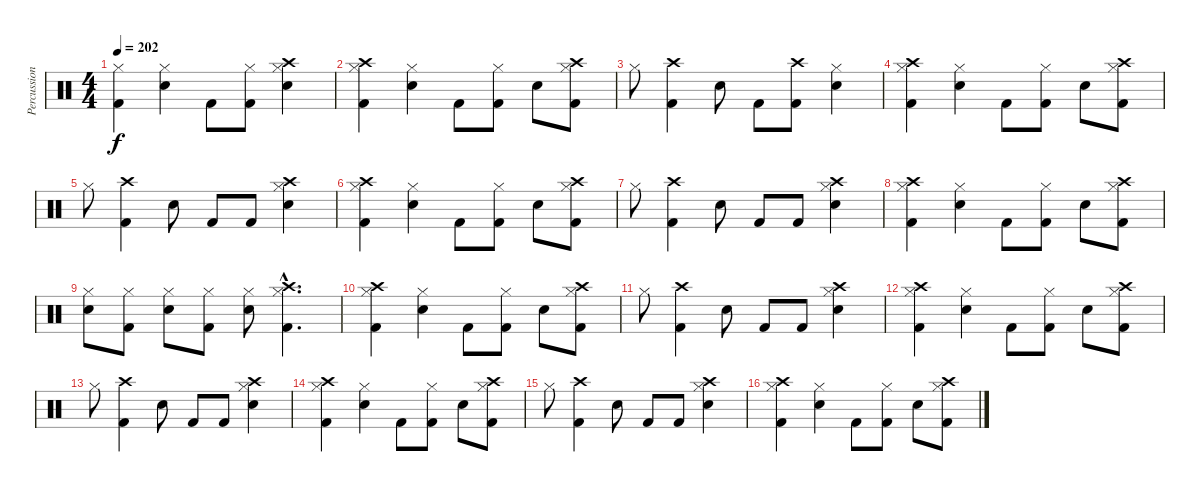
\track ("Percussioni" "Percussion") {instrument percussion}
\staff {score}
\articulation defaults
\ts (4 4)
\tempo 202
\clef neutral
\ks c
("Hi-Hat (closed)" "Kick (hit) 2").4{dy f} ("Hi-Hat (closed)" "Snare (hit) 2").4 "Kick (hit) 2".8 ("Hi-Hat (closed)" "Kick (hit) 2").8 ("Hi-Hat (closed)" "Crash high (hit)" "Snare (hit) 2").4 |
("Hi-Hat (closed)" "Crash high (hit)" "Kick (hit) 2").4 ("Hi-Hat (closed)" "Snare (hit) 2").4 "Kick (hit) 2".8 ("Hi-Hat (closed)" "Kick (hit) 2").8 "Snare (hit) 2".8 ("Hi-Hat (closed)" "Crash high (hit)" "Kick (hit) 2").8 |
"Hi-Hat (closed)".8 ("Crash high (hit)" "Kick (hit) 2").4 "Snare (hit) 2".8 "Kick (hit) 2".8 ("Crash high (hit)" "Kick (hit) 2").8 ("Hi-Hat (closed)" "Snare (hit) 2").4 |
("Hi-Hat (closed)" "Crash high (hit)" "Kick (hit) 2").4 ("Hi-Hat (closed)" "Snare (hit) 2").4 "Kick (hit) 2".8 ("Hi-Hat (closed)" "Kick (hit) 2").8 "Snare (hit) 2".8 ("Hi-Hat (closed)" "Crash high (hit)" "Kick (hit) 2").8 |
"Hi-Hat (closed)".8 ("Crash high (hit)" "Kick (hit) 2").4 "Snare (hit) 2".8 "Kick (hit) 2".8 "Kick (hit) 2".8 ("Hi-Hat (closed)" "Crash high (hit)" "Snare (hit) 2").4 |
("Hi-Hat (closed)" "Crash high (hit)" "Kick (hit) 2").4 ("Hi-Hat (closed)" "Snare (hit) 2").4 "Kick (hit) 2".8 ("Hi-Hat (closed)" "Kick (hit) 2").8 "Snare (hit) 2".8 ("Hi-Hat (closed)" "Crash high (hit)" "Kick (hit) 2").8 |
"Hi-Hat (closed)".8 ("Crash high (hit)" "Kick (hit) 2").4 "Snare (hit) 2".8 "Kick (hit) 2".8 "Kick (hit) 2".8 ("Hi-Hat (closed)" "Crash high (hit)" "Snare (hit) 2").4 |
("Hi-Hat (closed)" "Crash high (hit)" "Kick (hit) 2").4 ("Hi-Hat (closed)" "Snare (hit) 2").4 "Kick (hit) 2".8 ("Hi-Hat (closed)" "Kick (hit) 2").8 "Snare (hit) 2".8 ("Hi-Hat (closed)" "Crash high (hit)" "Kick (hit) 2").8 |
("Hi-Hat (closed)" "Snare (hit) 2").8 ("Hi-Hat (closed)" "Kick (hit) 2").8 ("Hi-Hat (closed)" "Snare (hit) 2").8 ("Hi-Hat (closed)" "Kick (hit) 2").8 ("Hi-Hat (closed)" "Snare (hit) 2").8 ("Hi-Hat (closed)"{hac} "Crash high (hit)"{hac} "Kick (hit) 2"{hac}).4{d} |
("Hi-Hat (closed)" "Crash high (hit)" "Kick (hit) 2").4 ("Hi-Hat (closed)" "Snare (hit) 2").4 "Kick (hit) 2".8 ("Hi-Hat (closed)" "Kick (hit) 2").8 "Snare (hit) 2".8 ("Hi-Hat (closed)" "Crash high (hit)" "Kick (hit) 2").8 |
"Hi-Hat (closed)".8 ("Crash high (hit)" "Kick (hit) 2").4 "Snare (hit) 2".8 "Kick (hit) 2".8 "Kick (hit) 2".8 ("Hi-Hat (closed)" "Crash high (hit)" "Snare (hit) 2").4 |
("Hi-Hat (closed)" "Crash high (hit)" "Kick (hit) 2").4 ("Hi-Hat (closed)" "Snare (hit) 2").4 "Kick (hit) 2".8 ("Hi-Hat (closed)" "Kick (hit) 2").8 "Snare (hit) 2".8 ("Hi-Hat (closed)" "Crash high (hit)" "Kick (hit) 2").8 |
"Hi-Hat (closed)".8 ("Crash high (hit)" "Kick (hit) 2").4 "Snare (hit) 2".8 "Kick (hit) 2".8 "Kick (hit) 2".8 ("Hi-Hat (closed)" "Crash high (hit)" "Snare (hit) 2").4 |
("Hi-Hat (closed)" "Crash high (hit)" "Kick (hit) 2").4 ("Hi-Hat (closed)" "Snare (hit) 2").4 "Kick (hit) 2".8 ("Hi-Hat (closed)" "Kick (hit) 2").8 "Snare (hit) 2".8 ("Hi-Hat (closed)" "Crash high (hit)" "Kick (hit) 2").8 |
"Hi-Hat (closed)".8 ("Crash high (hit)" "Kick (hit) 2").4 "Snare (hit) 2".8 "Kick (hit) 2".8 "Kick (hit) 2".8 ("Hi-Hat (closed)" "Crash high (hit)" "Snare (hit) 2").4 |
("Hi-Hat (closed)" "Crash high (hit)" "Kick (hit) 2").4 ("Hi-Hat (closed)" "Snare (hit) 2").4 "Kick (hit) 2".8 ("Hi-Hat (closed)" "Kick (hit) 2").8 "Snare (hit) 2".8 ("Hi-Hat (closed)" "Crash high (hit)" "Kick (hit) 2").8
